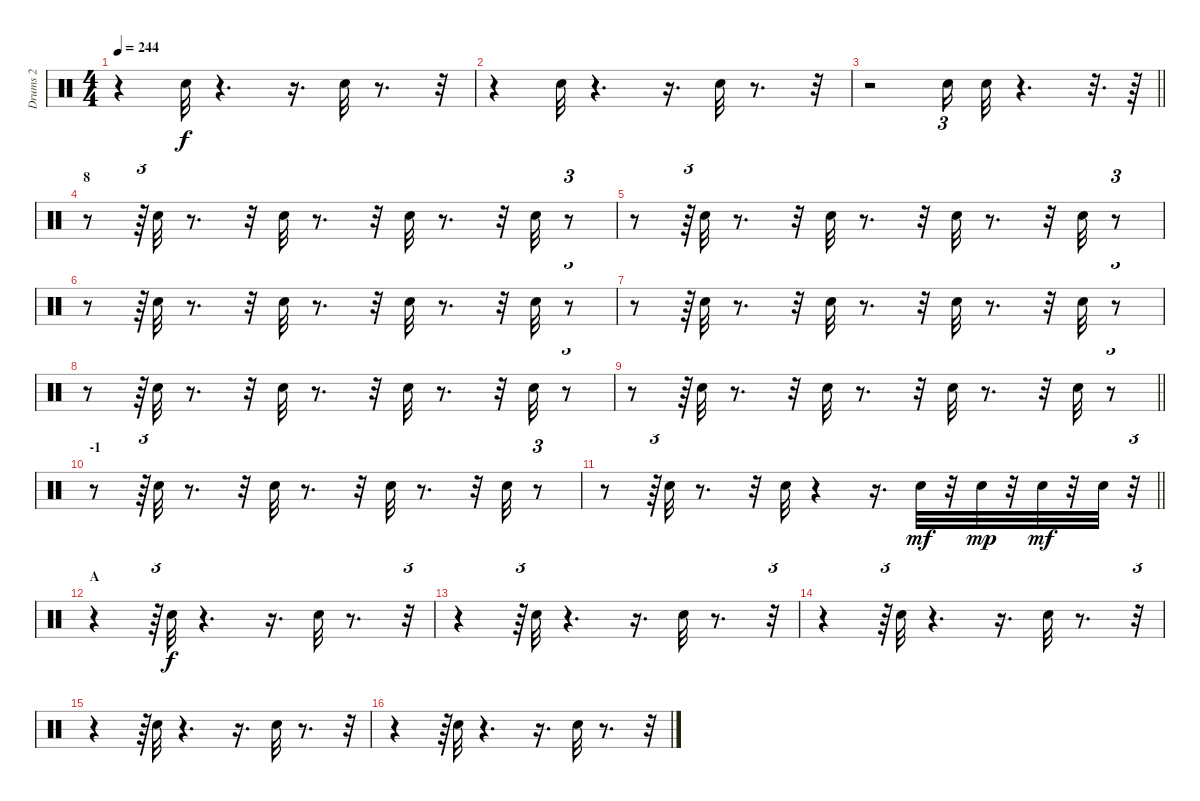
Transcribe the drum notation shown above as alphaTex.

\track ("Drums 2" "Drums 2") {instrument percussion}
\staff {score}
\articulation defaults
\ts (4 4)
\tempo 244
\clef neutral
\ks c
r.4{dy f} "Electric Snare (hit)".32 r.4{d} r.16{d} "Electric Snare (hit)".32 r.8{d} r.32 |
r.4 "Electric Snare (hit)".32 r.4{d} r.16{d} "Electric Snare (hit)".32 r.8{d} r.32 |
\barLineRight lightlight
r.2 "Electric Snare (hit)".16{tu (3 2)} "Electric Snare (hit)".32 r.4{d} r.32{d} r.64 |
\section ("" "8")
r.8 r.64{tu (3 2)} "Electric Snare (hit)".32 r.8{d} r.32 "Electric Snare (hit)".32 r.8{d} r.32 "Electric Snare (hit)".32 r.8{d} r.32 "Electric Snare (hit)".32 r.8{tu (3 2)} |
r.8 r.64{tu (3 2)} "Electric Snare (hit)".32 r.8{d} r.32 "Electric Snare (hit)".32 r.8{d} r.32 "Electric Snare (hit)".32 r.8{d} r.32 "Electric Snare (hit)".32 r.8{tu (3 2)} |
r.8 r.64{tu (3 2)} "Electric Snare (hit)".32 r.8{d} r.32 "Electric Snare (hit)".32 r.8{d} r.32 "Electric Snare (hit)".32 r.8{d} r.32 "Electric Snare (hit)".32 r.8{tu (3 2)} |
r.8 r.64{tu (3 2)} "Electric Snare (hit)".32 r.8{d} r.32 "Electric Snare (hit)".32 r.8{d} r.32 "Electric Snare (hit)".32 r.8{d} r.32 "Electric Snare (hit)".32 r.8{tu (3 2)} |
r.8 r.64{tu (3 2)} "Electric Snare (hit)".32 r.8{d} r.32 "Electric Snare (hit)".32 r.8{d} r.32 "Electric Snare (hit)".32 r.8{d} r.32 "Electric Snare (hit)".32 r.8{tu (3 2)} |
\barLineRight lightlight
r.8 r.64{tu (3 2)} "Electric Snare (hit)".32 r.8{d} r.32 "Electric Snare (hit)".32 r.8{d} r.32 "Electric Snare (hit)".32 r.8{d} r.32 "Electric Snare (hit)".32 r.8{tu (3 2)} |
\section ("" "-1")
r.8 r.64{tu (3 2)} "Electric Snare (hit)".32 r.8{d} r.32 "Electric Snare (hit)".32 r.8{d} r.32 "Electric Snare (hit)".32 r.8{d} r.32 "Electric Snare (hit)".32 r.8{tu (3 2)} |
\barLineRight lightlight
r.8 r.64{tu (3 2)} "Electric Snare (hit)".32 r.8{d} r.32 "Electric Snare (hit)".32 r.4 r.16{d} "Electric Snare (hit)".32{dy mf} r.32 "Electric Snare (hit)".32{dy mp} r.32 "Electric Snare (hit)".32{dy mf} r.32 "Electric Snare (hit)".32 r.32{tu (3 2)} |
\section ("" "A")
r.4 r.64{tu (3 2)} "Electric Snare (hit)".32{dy f} r.4{d} r.16{d} "Electric Snare (hit)".32 r.8{d} r.32{tu (3 2)} |
r.4 r.64{tu (3 2)} "Electric Snare (hit)".32 r.4{d} r.16{d} "Electric Snare (hit)".32 r.8{d} r.32{tu (3 2)} |
r.4 r.64{tu (3 2)} "Electric Snare (hit)".32 r.4{d} r.16{d} "Electric Snare (hit)".32 r.8{d} r.32{tu (3 2)} |
r.4 r.64{tu (3 2)} "Electric Snare (hit)".32 r.4{d} r.16{d} "Electric Snare (hit)".32 r.8{d} r.32{tu (3 2)} |
r.4 r.64{tu (3 2)} "Electric Snare (hit)".32 r.4{d} r.16{d} "Electric Snare (hit)".32 r.8{d} r.32{tu (3 2)}
